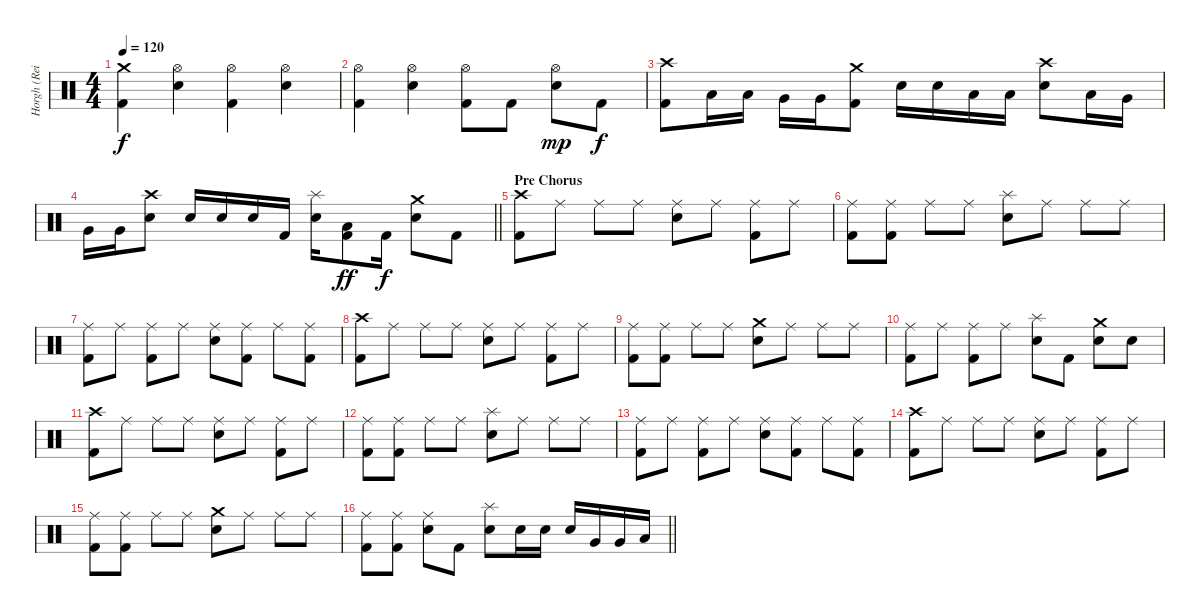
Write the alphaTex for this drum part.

\track ("Horgh (Reidar Horghagen)" "Horgh (Rei") {instrument percussion}
\staff {score}
\articulation defaults
\ts (4 4)
\tempo 120
\clef neutral
\ks c
("Crash medium (hit)" "Kick (hit) 2").4{dy f} ("Hi-Hat (open)" "Snare (hit) 2").4 ("Hi-Hat (open)" "Kick (hit) 2").4 ("Hi-Hat (open)" "Snare (hit) 2").4 |
("Hi-Hat (open)" "Kick (hit) 2").4 ("Hi-Hat (open)" "Snare (hit) 2").4 ("Hi-Hat (open)" "Kick (hit) 2").8 "Kick (hit) 2".8 ("Hi-Hat (open)" "Snare (hit) 2").8{dy mp} "Kick (hit) 2".8{dy f} |
("Crash high (hit)" "Kick (hit) 2").8 "Low Tom (hit)".16 "Low Tom (hit)".16 "Very Low Tom (hit)".16 "Very Low Tom (hit)".16 ("Crash medium (hit)" "Kick (hit) 2").8 "Snare (hit) 2".16 "Snare (hit) 2".16 "Low Tom (hit)".16 "Low Tom (hit)".16 ("Crash high (hit)" "Snare (hit) 2").8 "Low Tom (hit)".16 "Very Low Tom (hit)".16 |
\barLineRight lightlight "Very Low Tom (hit)".16 "Very Low Tom (hit)".16
("Crash high (hit)" "Snare (hit) 2").8 "Snare (hit) 2".16 "Snare (hit) 2".16 "Snare (hit) 2".16 "Kick (hit) 2".16 ("Splash (hit)" "Snare (hit) 2").16 ("Low Floor Tom (hit)" "Kick (hit) 2").8{dy ff} "Kick (hit) 2".16{dy f} ("Crash medium (hit)" "Snare (hit) 2").8 "Kick (hit) 2".8 |
\section ("" "Pre Chorus")
("Crash high (hit)" "Kick (hit) 2").8 "Ride (middle)".8 "Ride (middle)".8 "Ride (middle)".8 ("Ride (middle)" "Snare (hit) 2").8 "Ride (middle)".8 ("Ride (middle)" "Kick (hit) 2").8 "Ride (middle)".8 |
("Ride (middle)" "Kick (hit) 2").8 ("Ride (middle)" "Kick (hit) 2").8 "Ride (middle)".8 "Ride (middle)".8 ("Splash (hit)" "Snare (hit) 2").8 "Ride (middle)".8 "Ride (middle)".8 "Ride (middle)".8 |
("Ride (middle)" "Kick (hit) 2").8 "Ride (middle)".8 ("Ride (middle)" "Kick (hit) 2").8 "Ride (middle)".8 ("Ride (middle)" "Snare (hit) 2").8 ("Ride (middle)" "Kick (hit) 2").8 "Ride (middle)".8 ("Ride (middle)" "Kick (hit) 2").8 |
("Crash high (hit)" "Kick (hit) 2").8 "Ride (middle)".8 "Ride (middle)".8 "Ride (middle)".8 ("Ride (middle)" "Snare (hit) 2").8 "Ride (middle)".8 ("Ride (middle)" "Kick (hit) 2").8 "Ride (middle)".8 |
("Ride (middle)" "Kick (hit) 2").8 ("Ride (middle)" "Kick (hit) 2").8 "Ride (middle)".8 "Ride (middle)".8 ("Crash medium (hit)" "Snare (hit) 2").8 "Ride (middle)".8 "Ride (middle)".8 "Ride (middle)".8 |
("Ride (middle)" "Kick (hit) 2").8 "Ride (middle)".8 ("Ride (middle)" "Kick (hit) 2").8 "Ride (middle)".8 ("Splash (hit)" "Snare (hit) 2").8 "Kick (hit) 2".8 ("Crash medium (hit)" "Snare (hit) 2").8 "Snare (hit) 2".8 |
("Crash high (hit)" "Kick (hit) 2").8 "Ride (middle)".8 "Ride (middle)".8 "Ride (middle)".8 ("Ride (middle)" "Snare (hit) 2").8 "Ride (middle)".8 ("Ride (middle)" "Kick (hit) 2").8 "Ride (middle)".8 |
("Ride (middle)" "Kick (hit) 2").8 ("Ride (middle)" "Kick (hit) 2").8 "Ride (middle)".8 "Ride (middle)".8 ("Splash (hit)" "Snare (hit) 2").8 "Ride (middle)".8 "Ride (middle)".8 "Ride (middle)".8 |
("Ride (middle)" "Kick (hit) 2").8 "Ride (middle)".8 ("Ride (middle)" "Kick (hit) 2").8 "Ride (middle)".8 ("Ride (middle)" "Snare (hit) 2").8 ("Ride (middle)" "Kick (hit) 2").8 "Ride (middle)".8 ("Ride (middle)" "Kick (hit) 2").8 |
("Crash high (hit)" "Kick (hit) 2").8 "Ride (middle)".8 "Ride (middle)".8 "Ride (middle)".8 ("Ride (middle)" "Snare (hit) 2").8 "Ride (middle)".8 ("Ride (middle)" "Kick (hit) 2").8 "Ride (middle)".8 |
("Ride (middle)" "Kick (hit) 2").8 ("Ride (middle)" "Kick (hit) 2").8 "Ride (middle)".8 "Ride (middle)".8 ("Crash medium (hit)" "Snare (hit) 2").8 "Ride (middle)".8 "Ride (middle)".8 "Ride (middle)".8 |
\barLineRight lightlight
("Ride (middle)" "Kick (hit) 2").8 ("Ride (middle)" "Kick (hit) 2").8 ("Ride (middle)" "Snare (hit) 2").8 "Kick (hit) 2".8 ("Splash (hit)" "Snare (hit) 2").8 "Snare (hit) 2".16 "Snare (hit) 2".16 "Snare (hit) 2".16 "Very Low Tom (hit)".16 "Very Low Tom (hit)".16 "Low Floor Tom (hit)".16
